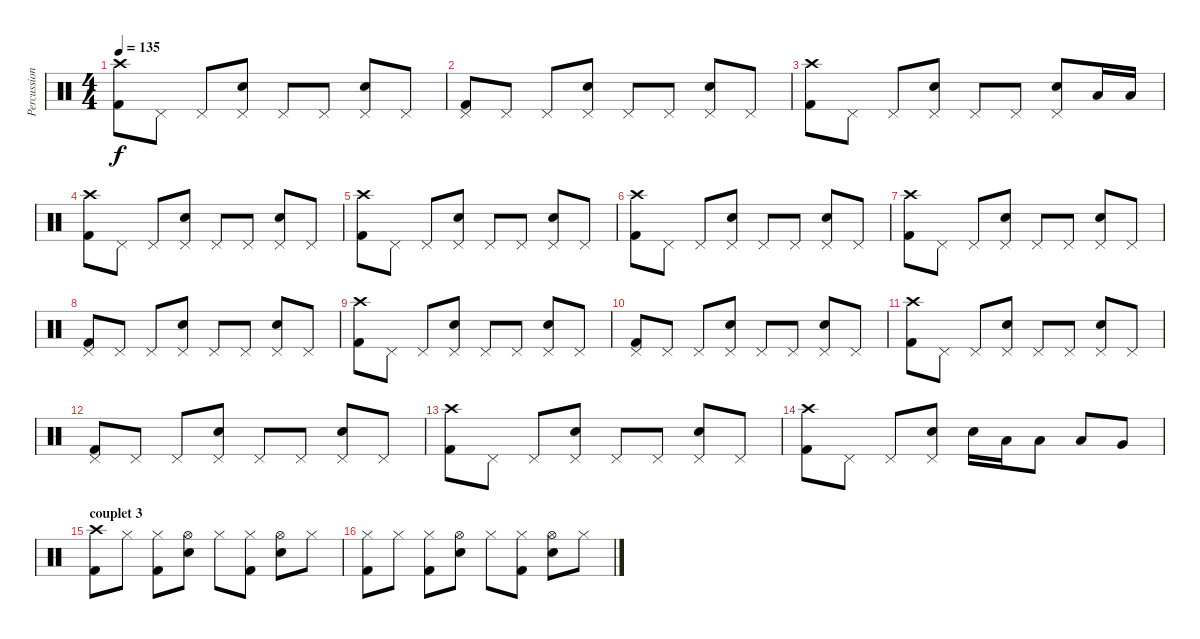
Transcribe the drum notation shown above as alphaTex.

\track ("Percussions" "Percussion") {instrument percussion}
\staff {score}
\articulation defaults
\ts (4 4)
\tempo 135
\clef neutral
\ks c
("Crash high (hit)" "Kick (hit) 2").8{dy f} "Pedal Hi-Hat (hit)".8 "Pedal Hi-Hat (hit)".8 ("Pedal Hi-Hat (hit)" "Snare (hit) 2").8 "Pedal Hi-Hat (hit)".8 "Pedal Hi-Hat (hit)".8 ("Pedal Hi-Hat (hit)" "Snare (hit) 2").8 "Pedal Hi-Hat (hit)".8 |
("Pedal Hi-Hat (hit)" "Kick (hit) 2").8 "Pedal Hi-Hat (hit)".8 "Pedal Hi-Hat (hit)".8 ("Pedal Hi-Hat (hit)" "Snare (hit) 2").8 "Pedal Hi-Hat (hit)".8 "Pedal Hi-Hat (hit)".8 ("Pedal Hi-Hat (hit)" "Snare (hit) 2").8 "Pedal Hi-Hat (hit)".8 |
("Crash high (hit)" "Kick (hit) 2").8 "Pedal Hi-Hat (hit)".8 "Pedal Hi-Hat (hit)".8 ("Pedal Hi-Hat (hit)" "Snare (hit) 2").8 "Pedal Hi-Hat (hit)".8 "Pedal Hi-Hat (hit)".8 ("Pedal Hi-Hat (hit)" "Snare (hit) 2").8 "Low Tom (hit)".16 "Low Tom (hit)".16 |
("Crash high (hit)" "Kick (hit) 2").8 "Pedal Hi-Hat (hit)".8 "Pedal Hi-Hat (hit)".8 ("Pedal Hi-Hat (hit)" "Snare (hit) 2").8 "Pedal Hi-Hat (hit)".8 "Pedal Hi-Hat (hit)".8 ("Pedal Hi-Hat (hit)" "Snare (hit) 2").8 "Pedal Hi-Hat (hit)".8 |
("Crash high (hit)" "Kick (hit) 2").8 "Pedal Hi-Hat (hit)".8 "Pedal Hi-Hat (hit)".8 ("Pedal Hi-Hat (hit)" "Snare (hit) 2").8 "Pedal Hi-Hat (hit)".8 "Pedal Hi-Hat (hit)".8 ("Pedal Hi-Hat (hit)" "Snare (hit) 2").8 "Pedal Hi-Hat (hit)".8 |
("Crash high (hit)" "Kick (hit) 2").8 "Pedal Hi-Hat (hit)".8 "Pedal Hi-Hat (hit)".8 ("Pedal Hi-Hat (hit)" "Snare (hit) 2").8 "Pedal Hi-Hat (hit)".8 "Pedal Hi-Hat (hit)".8 ("Pedal Hi-Hat (hit)" "Snare (hit) 2").8 "Pedal Hi-Hat (hit)".8 |
("Crash high (hit)" "Kick (hit) 2").8 "Pedal Hi-Hat (hit)".8 "Pedal Hi-Hat (hit)".8 ("Pedal Hi-Hat (hit)" "Snare (hit) 2").8 "Pedal Hi-Hat (hit)".8 "Pedal Hi-Hat (hit)".8 ("Pedal Hi-Hat (hit)" "Snare (hit) 2").8 "Pedal Hi-Hat (hit)".8 |
("Pedal Hi-Hat (hit)" "Kick (hit) 2").8 "Pedal Hi-Hat (hit)".8 "Pedal Hi-Hat (hit)".8 ("Pedal Hi-Hat (hit)" "Snare (hit) 2").8 "Pedal Hi-Hat (hit)".8 "Pedal Hi-Hat (hit)".8 ("Pedal Hi-Hat (hit)" "Snare (hit) 2").8 "Pedal Hi-Hat (hit)".8 |
("Crash high (hit)" "Kick (hit) 2").8 "Pedal Hi-Hat (hit)".8 "Pedal Hi-Hat (hit)".8 ("Pedal Hi-Hat (hit)" "Snare (hit) 2").8 "Pedal Hi-Hat (hit)".8 "Pedal Hi-Hat (hit)".8 ("Pedal Hi-Hat (hit)" "Snare (hit) 2").8 "Pedal Hi-Hat (hit)".8 |
("Pedal Hi-Hat (hit)" "Kick (hit) 2").8 "Pedal Hi-Hat (hit)".8 "Pedal Hi-Hat (hit)".8 ("Pedal Hi-Hat (hit)" "Snare (hit) 2").8 "Pedal Hi-Hat (hit)".8 "Pedal Hi-Hat (hit)".8 ("Pedal Hi-Hat (hit)" "Snare (hit) 2").8 "Pedal Hi-Hat (hit)".8 |
("Crash high (hit)" "Kick (hit) 2").8 "Pedal Hi-Hat (hit)".8 "Pedal Hi-Hat (hit)".8 ("Pedal Hi-Hat (hit)" "Snare (hit) 2").8 "Pedal Hi-Hat (hit)".8 "Pedal Hi-Hat (hit)".8 ("Pedal Hi-Hat (hit)" "Snare (hit) 2").8 "Pedal Hi-Hat (hit)".8 |
("Pedal Hi-Hat (hit)" "Kick (hit) 2").8 "Pedal Hi-Hat (hit)".8 "Pedal Hi-Hat (hit)".8 ("Pedal Hi-Hat (hit)" "Snare (hit) 2").8 "Pedal Hi-Hat (hit)".8 "Pedal Hi-Hat (hit)".8 ("Pedal Hi-Hat (hit)" "Snare (hit) 2").8 "Pedal Hi-Hat (hit)".8 |
("Crash high (hit)" "Kick (hit) 2").8 "Pedal Hi-Hat (hit)".8 "Pedal Hi-Hat (hit)".8 ("Pedal Hi-Hat (hit)" "Snare (hit) 2").8 "Pedal Hi-Hat (hit)".8 "Pedal Hi-Hat (hit)".8 ("Pedal Hi-Hat (hit)" "Snare (hit) 2").8 "Pedal Hi-Hat (hit)".8 |
("Crash high (hit)" "Kick (hit) 2").8 "Pedal Hi-Hat (hit)".8 "Pedal Hi-Hat (hit)".8 ("Pedal Hi-Hat (hit)" "Snare (hit) 2").8 "Snare (hit) 2".16 "Low Tom (hit)".16 "Low Tom (hit)".8 "Low Tom (hit)".8 "Very Low Tom (hit)".8 |
\section ("" "couplet 3")
("Crash high (hit)" "Kick (hit) 2").8 "Hi-Hat (closed)".8 ("Hi-Hat (closed)" "Kick (hit) 2").8 ("Hi-Hat (open)" "Snare (hit) 2").8 "Hi-Hat (closed)".8 ("Hi-Hat (closed)" "Kick (hit) 2").8 ("Hi-Hat (open)" "Snare (hit) 2").8 "Hi-Hat (closed)".8 |
("Hi-Hat (closed)" "Kick (hit) 2").8 "Hi-Hat (closed)".8 ("Hi-Hat (closed)" "Kick (hit) 2").8 ("Hi-Hat (open)" "Snare (hit) 2").8 "Hi-Hat (closed)".8 ("Hi-Hat (closed)" "Kick (hit) 2").8 ("Hi-Hat (open)" "Snare (hit) 2").8 "Hi-Hat (closed)".8
